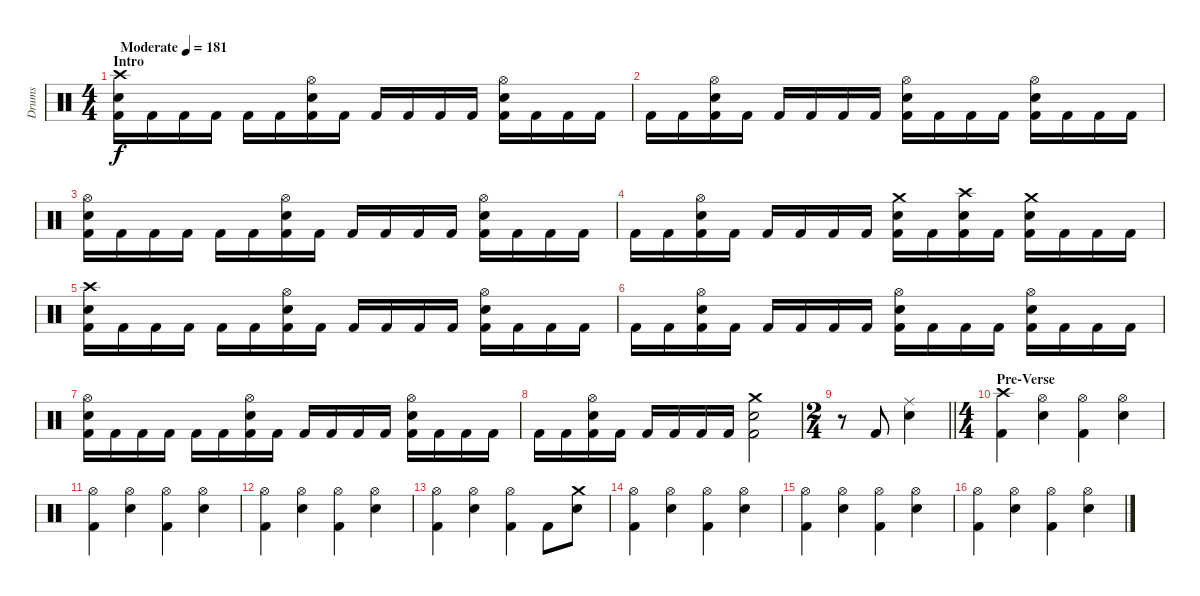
\track ("Drums" "Drums") {instrument percussion}
\staff {score}
\articulation defaults
\ts (4 4)
\section ("" "Intro")
\tempo (181 "Moderate")
\clef neutral
\ks c
("Crash high (hit)" "Snare (hit) 2" "Kick (hit) 2").16{dy f} "Kick (hit) 2".16 "Kick (hit) 2".16 "Kick (hit) 2".16 "Kick (hit) 2".16 "Kick (hit) 2".16 ("Hi-Hat (open)" "Snare (hit) 2" "Kick (hit) 2").16 "Kick (hit) 2".16 "Kick (hit) 2".16 "Kick (hit) 2".16 "Kick (hit) 2".16 "Kick (hit) 2".16 ("Hi-Hat (open)" "Snare (hit) 2" "Kick (hit) 2").16 "Kick (hit) 2".16 "Kick (hit) 2".16 "Kick (hit) 2".16 |
"Kick (hit) 2".16 "Kick (hit) 2".16 ("Hi-Hat (open)" "Snare (hit) 2" "Kick (hit) 2").16 "Kick (hit) 2".16 "Kick (hit) 2".16 "Kick (hit) 2".16 "Kick (hit) 2".16 "Kick (hit) 2".16 ("Hi-Hat (open)" "Snare (hit) 2" "Kick (hit) 2").16 "Kick (hit) 2".16 "Kick (hit) 2".16 "Kick (hit) 2".16 ("Hi-Hat (open)" "Snare (hit) 2" "Kick (hit) 2").16 "Kick (hit) 2".16 "Kick (hit) 2".16 "Kick (hit) 2".16 |
("Hi-Hat (open)" "Snare (hit) 2" "Kick (hit) 2").16 "Kick (hit) 2".16 "Kick (hit) 2".16 "Kick (hit) 2".16 "Kick (hit) 2".16 "Kick (hit) 2".16 ("Hi-Hat (open)" "Snare (hit) 2" "Kick (hit) 2").16 "Kick (hit) 2".16 "Kick (hit) 2".16 "Kick (hit) 2".16 "Kick (hit) 2".16 "Kick (hit) 2".16 ("Hi-Hat (open)" "Snare (hit) 2" "Kick (hit) 2").16 "Kick (hit) 2".16 "Kick (hit) 2".16 "Kick (hit) 2".16 |
"Kick (hit) 2".16 "Kick (hit) 2".16 ("Hi-Hat (open)" "Snare (hit) 2" "Kick (hit) 2").16 "Kick (hit) 2".16 "Kick (hit) 2".16 "Kick (hit) 2".16 "Kick (hit) 2".16 "Kick (hit) 2".16 ("Crash medium (hit)" "Snare (hit) 2" "Kick (hit) 2").16 "Kick (hit) 2".16 ("Crash high (hit)" "Snare (hit) 2" "Kick (hit) 2").16 "Kick (hit) 2".16 ("Crash medium (hit)" "Snare (hit) 2" "Kick (hit) 2").16 "Kick (hit) 2".16 "Kick (hit) 2".16 "Kick (hit) 2".16 |
("Crash high (hit)" "Snare (hit) 2" "Kick (hit) 2").16 "Kick (hit) 2".16 "Kick (hit) 2".16 "Kick (hit) 2".16 "Kick (hit) 2".16 "Kick (hit) 2".16 ("Hi-Hat (open)" "Snare (hit) 2" "Kick (hit) 2").16 "Kick (hit) 2".16 "Kick (hit) 2".16 "Kick (hit) 2".16 "Kick (hit) 2".16 "Kick (hit) 2".16 ("Hi-Hat (open)" "Snare (hit) 2" "Kick (hit) 2").16 "Kick (hit) 2".16 "Kick (hit) 2".16 "Kick (hit) 2".16 |
"Kick (hit) 2".16 "Kick (hit) 2".16 ("Hi-Hat (open)" "Snare (hit) 2" "Kick (hit) 2").16 "Kick (hit) 2".16 "Kick (hit) 2".16 "Kick (hit) 2".16 "Kick (hit) 2".16 "Kick (hit) 2".16 ("Hi-Hat (open)" "Snare (hit) 2" "Kick (hit) 2").16 "Kick (hit) 2".16 "Kick (hit) 2".16 "Kick (hit) 2".16 ("Hi-Hat (open)" "Snare (hit) 2" "Kick (hit) 2").16 "Kick (hit) 2".16 "Kick (hit) 2".16 "Kick (hit) 2".16 |
("Hi-Hat (open)" "Snare (hit) 2" "Kick (hit) 2").16 "Kick (hit) 2".16 "Kick (hit) 2".16 "Kick (hit) 2".16 "Kick (hit) 2".16 "Kick (hit) 2".16 ("Hi-Hat (open)" "Snare (hit) 2" "Kick (hit) 2").16 "Kick (hit) 2".16 "Kick (hit) 2".16 "Kick (hit) 2".16 "Kick (hit) 2".16 "Kick (hit) 2".16 ("Hi-Hat (open)" "Snare (hit) 2" "Kick (hit) 2").16 "Kick (hit) 2".16 "Kick (hit) 2".16 "Kick (hit) 2".16 |
"Kick (hit) 2".16 "Kick (hit) 2".16 ("Hi-Hat (open)" "Snare (hit) 2" "Kick (hit) 2").16 "Kick (hit) 2".16 "Kick (hit) 2".16 "Kick (hit) 2".16 "Kick (hit) 2".16 "Kick (hit) 2".16 ("Crash medium (hit)" "Snare (hit) 2" "Kick (hit) 2").2 |
\ts (2 4)
\barLineRight lightlight
r.8 "Kick (hit) 2".8 ("Ride (middle)" "Snare (hit) 2").4 |
\ts (4 4)
\section ("" "Pre-Verse")
("Crash high (hit)" "Kick (hit) 2").4 ("Hi-Hat (open)" "Snare (hit) 2").4 ("Hi-Hat (open)" "Kick (hit) 2").4 ("Hi-Hat (open)" "Snare (hit) 2").4 |
("Hi-Hat (open)" "Kick (hit) 2").4 ("Hi-Hat (open)" "Snare (hit) 2").4 ("Hi-Hat (open)" "Kick (hit) 2").4 ("Hi-Hat (open)" "Snare (hit) 2").4 |
("Hi-Hat (open)" "Kick (hit) 2").4 ("Hi-Hat (open)" "Snare (hit) 2").4 ("Hi-Hat (open)" "Kick (hit) 2").4 ("Hi-Hat (open)" "Snare (hit) 2").4 |
("Hi-Hat (open)" "Kick (hit) 2").4 ("Hi-Hat (open)" "Snare (hit) 2").4 ("Hi-Hat (open)" "Kick (hit) 2").4 "Kick (hit) 2".8 ("Crash medium (hit)" "Snare (hit) 2").8 |
("Hi-Hat (open)" "Kick (hit) 2").4 ("Hi-Hat (open)" "Snare (hit) 2").4 ("Hi-Hat (open)" "Kick (hit) 2").4 ("Hi-Hat (open)" "Snare (hit) 2").4 |
("Hi-Hat (open)" "Kick (hit) 2").4 ("Hi-Hat (open)" "Snare (hit) 2").4 ("Hi-Hat (open)" "Kick (hit) 2").4 ("Hi-Hat (open)" "Snare (hit) 2").4 |
("Hi-Hat (open)" "Kick (hit) 2").4 ("Hi-Hat (open)" "Snare (hit) 2").4 ("Hi-Hat (open)" "Kick (hit) 2").4 ("Hi-Hat (open)" "Snare (hit) 2").4
